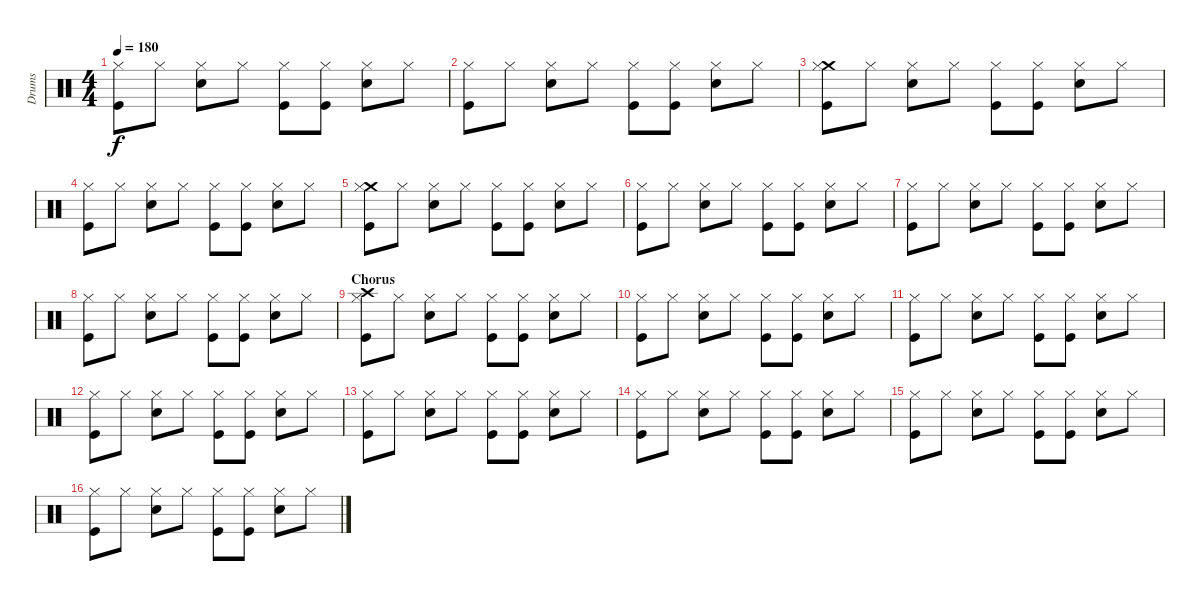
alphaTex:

\track ("Drums" "Drums") {instrument percussion}
\staff {score}
\articulation defaults
\ts (4 4)
\tempo 180
\clef neutral
\ks c
("Hi-Hat (closed)" "Kick (hit)").8{dy f} "Hi-Hat (closed)".8 ("Hi-Hat (closed)" "Electric Snare (hit)").8 "Hi-Hat (closed)".8 ("Kick (hit)" "Hi-Hat (closed)").8 ("Hi-Hat (closed)" "Kick (hit)").8 ("Hi-Hat (closed)" "Electric Snare (hit)").8 "Hi-Hat (closed)".8 |
("Hi-Hat (closed)" "Kick (hit)").8 "Hi-Hat (closed)".8 ("Hi-Hat (closed)" "Electric Snare (hit)").8 "Hi-Hat (closed)".8 ("Kick (hit)" "Hi-Hat (closed)").8 ("Hi-Hat (closed)" "Kick (hit)").8 ("Hi-Hat (closed)" "Electric Snare (hit)").8 "Hi-Hat (closed)".8 |
("Crash medium (hit)" "Hi-Hat (closed)" "Kick (hit)").8 "Hi-Hat (closed)".8 ("Hi-Hat (closed)" "Electric Snare (hit)").8 "Hi-Hat (closed)".8 ("Kick (hit)" "Hi-Hat (closed)").8 ("Hi-Hat (closed)" "Kick (hit)").8 ("Hi-Hat (closed)" "Electric Snare (hit)").8 "Hi-Hat (closed)".8 |
("Hi-Hat (closed)" "Kick (hit)").8 "Hi-Hat (closed)".8 ("Hi-Hat (closed)" "Electric Snare (hit)").8 "Hi-Hat (closed)".8 ("Kick (hit)" "Hi-Hat (closed)").8 ("Hi-Hat (closed)" "Kick (hit)").8 ("Hi-Hat (closed)" "Electric Snare (hit)").8 "Hi-Hat (closed)".8 |
("Crash medium (hit)" "Hi-Hat (closed)" "Kick (hit)").8 "Hi-Hat (closed)".8 ("Electric Snare (hit)" "Hi-Hat (closed)").8 "Hi-Hat (closed)".8 ("Kick (hit)" "Hi-Hat (closed)").8 ("Hi-Hat (closed)" "Kick (hit)").8 ("Electric Snare (hit)" "Hi-Hat (closed)").8 "Hi-Hat (closed)".8 |
("Hi-Hat (closed)" "Kick (hit)").8 "Hi-Hat (closed)".8 ("Hi-Hat (closed)" "Electric Snare (hit)").8 "Hi-Hat (closed)".8 ("Kick (hit)" "Hi-Hat (closed)").8 ("Hi-Hat (closed)" "Kick (hit)").8 ("Hi-Hat (closed)" "Electric Snare (hit)").8 "Hi-Hat (closed)".8 |
("Hi-Hat (closed)" "Kick (hit)").8 "Hi-Hat (closed)".8 ("Hi-Hat (closed)" "Electric Snare (hit)").8 "Hi-Hat (closed)".8 ("Kick (hit)" "Hi-Hat (closed)").8 ("Hi-Hat (closed)" "Kick (hit)").8 ("Hi-Hat (closed)" "Electric Snare (hit)").8 "Hi-Hat (closed)".8 |
("Hi-Hat (closed)" "Kick (hit)").8 "Hi-Hat (closed)".8 ("Hi-Hat (closed)" "Electric Snare (hit)").8 "Hi-Hat (closed)".8 ("Kick (hit)" "Hi-Hat (closed)").8 ("Hi-Hat (closed)" "Kick (hit)").8 ("Hi-Hat (closed)" "Electric Snare (hit)").8 "Hi-Hat (closed)".8 |
\section ("" "Chorus")
("Crash high (hit)" "Hi-Hat (closed)" "Kick (hit)").8 "Hi-Hat (closed)".8 ("Hi-Hat (closed)" "Electric Snare (hit)").8 "Hi-Hat (closed)".8 ("Kick (hit)" "Hi-Hat (closed)").8 ("Hi-Hat (closed)" "Kick (hit)").8 ("Hi-Hat (closed)" "Electric Snare (hit)").8 "Hi-Hat (closed)".8 |
("Hi-Hat (closed)" "Kick (hit)").8 "Hi-Hat (closed)".8 ("Hi-Hat (closed)" "Electric Snare (hit)").8 "Hi-Hat (closed)".8 ("Kick (hit)" "Hi-Hat (closed)").8 ("Hi-Hat (closed)" "Kick (hit)").8 ("Hi-Hat (closed)" "Electric Snare (hit)").8 "Hi-Hat (closed)".8 |
("Hi-Hat (closed)" "Kick (hit)").8 "Hi-Hat (closed)".8 ("Hi-Hat (closed)" "Electric Snare (hit)").8 "Hi-Hat (closed)".8 ("Kick (hit)" "Hi-Hat (closed)").8 ("Hi-Hat (closed)" "Kick (hit)").8 ("Hi-Hat (closed)" "Electric Snare (hit)").8 "Hi-Hat (closed)".8 |
("Hi-Hat (closed)" "Kick (hit)").8 "Hi-Hat (closed)".8 ("Hi-Hat (closed)" "Electric Snare (hit)").8 "Hi-Hat (closed)".8 ("Kick (hit)" "Hi-Hat (closed)").8 ("Hi-Hat (closed)" "Kick (hit)").8 ("Hi-Hat (closed)" "Electric Snare (hit)").8 "Hi-Hat (closed)".8 |
("Hi-Hat (closed)" "Kick (hit)").8 "Hi-Hat (closed)".8 ("Hi-Hat (closed)" "Electric Snare (hit)").8 "Hi-Hat (closed)".8 ("Kick (hit)" "Hi-Hat (closed)").8 ("Hi-Hat (closed)" "Kick (hit)").8 ("Hi-Hat (closed)" "Electric Snare (hit)").8 "Hi-Hat (closed)".8 |
("Hi-Hat (closed)" "Kick (hit)").8 "Hi-Hat (closed)".8 ("Hi-Hat (closed)" "Electric Snare (hit)").8 "Hi-Hat (closed)".8 ("Kick (hit)" "Hi-Hat (closed)").8 ("Hi-Hat (closed)" "Kick (hit)").8 ("Hi-Hat (closed)" "Electric Snare (hit)").8 "Hi-Hat (closed)".8 |
("Hi-Hat (closed)" "Kick (hit)").8 "Hi-Hat (closed)".8 ("Hi-Hat (closed)" "Electric Snare (hit)").8 "Hi-Hat (closed)".8 ("Kick (hit)" "Hi-Hat (closed)").8 ("Hi-Hat (closed)" "Kick (hit)").8 ("Hi-Hat (closed)" "Electric Snare (hit)").8 "Hi-Hat (closed)".8 |
("Hi-Hat (closed)" "Kick (hit)").8 "Hi-Hat (closed)".8 ("Hi-Hat (closed)" "Electric Snare (hit)").8 "Hi-Hat (closed)".8 ("Kick (hit)" "Hi-Hat (closed)").8 ("Hi-Hat (closed)" "Kick (hit)").8 ("Hi-Hat (closed)" "Electric Snare (hit)").8 "Hi-Hat (closed)".8
